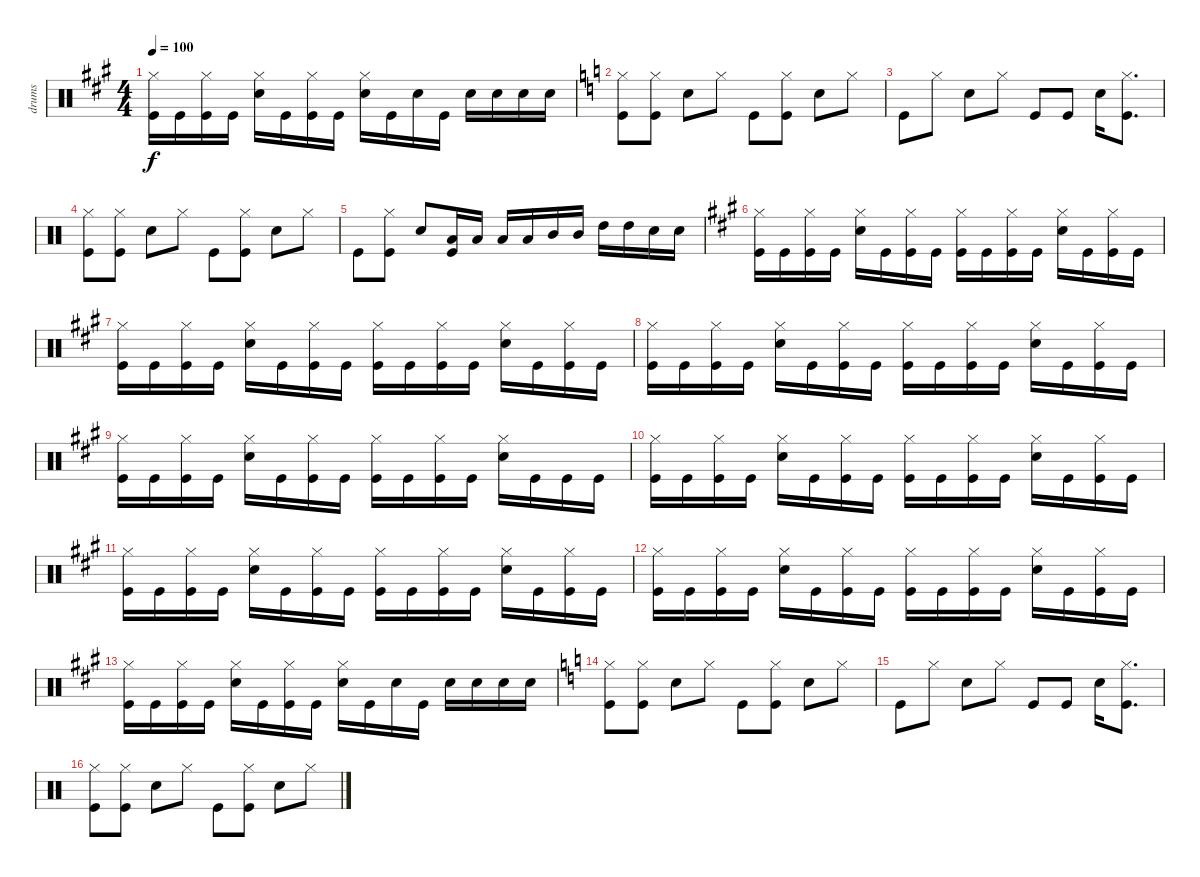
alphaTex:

\track ("drums" "drums") {instrument percussion}
\staff {score}
\articulation defaults
\ts (4 4)
\tempo 100
\clef neutral
\ks f#minor
("Hi-Hat (closed)" "Kick (hit)").16{dy f} "Kick (hit)".16 ("Hi-Hat (closed)" "Kick (hit)").16 "Kick (hit)".16 ("Hi-Hat (closed)" "Snare (hit) 2").16 "Kick (hit)".16 ("Hi-Hat (closed)" "Kick (hit)").16 "Kick (hit)".16 ("Hi-Hat (closed)" "Snare (hit) 2").16 "Kick (hit)".16 "Snare (hit) 2".16 "Kick (hit)".16 "Snare (hit) 2".16 "Snare (hit) 2".16 "Snare (hit) 2".16 "Snare (hit) 2".16 |
\ks aminor
("Hi-Hat (closed)" "Kick (hit)").8 ("Hi-Hat (closed)" "Kick (hit)").8 "Snare (hit) 2".8 "Hi-Hat (closed)".8 "Kick (hit)".8 ("Hi-Hat (closed)" "Kick (hit)").8 "Snare (hit) 2".8 "Hi-Hat (closed)".8 |
"Kick (hit)".8 "Hi-Hat (closed)".8 "Snare (hit) 2".8 "Hi-Hat (closed)".8 "Kick (hit)".8 "Kick (hit)".8 "Snare (hit) 2".16 ("Hi-Hat (closed)" "Kick (hit)").8{d} |
("Hi-Hat (closed)" "Kick (hit)").8 ("Hi-Hat (closed)" "Kick (hit)").8 "Snare (hit) 2".8 "Hi-Hat (closed)".8 "Kick (hit)".8 ("Hi-Hat (closed)" "Kick (hit)").8 "Snare (hit) 2".8 "Hi-Hat (closed)".8 |
"Kick (hit)".8 ("Hi-Hat (closed)" "Kick (hit)").8 "Snare (hit) 2".8 ("Low Tom (hit)" "Kick (hit)").16 "Low Tom (hit)".16 "Low Tom (hit)".16 "Low Tom (hit)".16 "Mid Tom (hit)".16 "Mid Tom (hit)".16 "High Tom (hit)".16 "High Tom (hit)".16 "Snare (hit) 2".16 "Snare (hit) 2".16 |
\ks f#minor
("Hi-Hat (closed)" "Kick (hit)").16 "Kick (hit)".16 ("Hi-Hat (closed)" "Kick (hit)").16 "Kick (hit)".16 ("Hi-Hat (closed)" "Snare (hit) 2").16 "Kick (hit)".16 ("Hi-Hat (closed)" "Kick (hit)").16 "Kick (hit)".16 ("Hi-Hat (closed)" "Kick (hit)").16 "Kick (hit)".16 ("Hi-Hat (closed)" "Kick (hit)").16 "Kick (hit)".16 ("Hi-Hat (closed)" "Snare (hit) 2").16 "Kick (hit)".16 ("Hi-Hat (closed)" "Kick (hit)").16 "Kick (hit)".16 |
("Hi-Hat (closed)" "Kick (hit)").16 "Kick (hit)".16 ("Hi-Hat (closed)" "Kick (hit)").16 "Kick (hit)".16 ("Hi-Hat (closed)" "Snare (hit) 2").16 "Kick (hit)".16 ("Hi-Hat (closed)" "Kick (hit)").16 "Kick (hit)".16 ("Hi-Hat (closed)" "Kick (hit)").16 "Kick (hit)".16 ("Hi-Hat (closed)" "Kick (hit)").16 "Kick (hit)".16 ("Hi-Hat (closed)" "Snare (hit) 2").16 "Kick (hit)".16 ("Hi-Hat (closed)" "Kick (hit)").16 "Kick (hit)".16 |
("Hi-Hat (closed)" "Kick (hit)").16 "Kick (hit)".16 ("Hi-Hat (closed)" "Kick (hit)").16 "Kick (hit)".16 ("Hi-Hat (closed)" "Snare (hit) 2").16 "Kick (hit)".16 ("Hi-Hat (closed)" "Kick (hit)").16 "Kick (hit)".16 ("Hi-Hat (closed)" "Kick (hit)").16 "Kick (hit)".16 ("Hi-Hat (closed)" "Kick (hit)").16 "Kick (hit)".16 ("Hi-Hat (closed)" "Snare (hit) 2").16 "Kick (hit)".16 ("Hi-Hat (closed)" "Kick (hit)").16 "Kick (hit)".16 |
("Hi-Hat (closed)" "Kick (hit)").16 "Kick (hit)".16 ("Hi-Hat (closed)" "Kick (hit)").16 "Kick (hit)".16 ("Hi-Hat (closed)" "Snare (hit) 2").16 "Kick (hit)".16 ("Hi-Hat (closed)" "Kick (hit)").16 "Kick (hit)".16 ("Hi-Hat (closed)" "Kick (hit)").16 "Kick (hit)".16 ("Hi-Hat (closed)" "Kick (hit)").16 "Kick (hit)".16 ("Hi-Hat (closed)" "Snare (hit) 2").16 "Kick (hit)".16 "Kick (hit)".16 "Kick (hit)".16 |
("Hi-Hat (closed)" "Kick (hit)").16 "Kick (hit)".16 ("Hi-Hat (closed)" "Kick (hit)").16 "Kick (hit)".16 ("Hi-Hat (closed)" "Snare (hit) 2").16 "Kick (hit)".16 ("Hi-Hat (closed)" "Kick (hit)").16 "Kick (hit)".16 ("Hi-Hat (closed)" "Kick (hit)").16 "Kick (hit)".16 ("Hi-Hat (closed)" "Kick (hit)").16 "Kick (hit)".16 ("Hi-Hat (closed)" "Snare (hit) 2").16 "Kick (hit)".16 ("Hi-Hat (closed)" "Kick (hit)").16 "Kick (hit)".16 |
("Hi-Hat (closed)" "Kick (hit)").16 "Kick (hit)".16 ("Hi-Hat (closed)" "Kick (hit)").16 "Kick (hit)".16 ("Hi-Hat (closed)" "Snare (hit) 2").16 "Kick (hit)".16 ("Hi-Hat (closed)" "Kick (hit)").16 "Kick (hit)".16 ("Hi-Hat (closed)" "Kick (hit)").16 "Kick (hit)".16 ("Hi-Hat (closed)" "Kick (hit)").16 "Kick (hit)".16 ("Hi-Hat (closed)" "Snare (hit) 2").16 "Kick (hit)".16 ("Hi-Hat (closed)" "Kick (hit)").16 "Kick (hit)".16 |
("Hi-Hat (closed)" "Kick (hit)").16 "Kick (hit)".16 ("Hi-Hat (closed)" "Kick (hit)").16 "Kick (hit)".16 ("Hi-Hat (closed)" "Snare (hit) 2").16 "Kick (hit)".16 ("Hi-Hat (closed)" "Kick (hit)").16 "Kick (hit)".16 ("Hi-Hat (closed)" "Kick (hit)").16 "Kick (hit)".16 ("Hi-Hat (closed)" "Kick (hit)").16 "Kick (hit)".16 ("Hi-Hat (closed)" "Snare (hit) 2").16 "Kick (hit)".16 ("Hi-Hat (closed)" "Kick (hit)").16 "Kick (hit)".16 |
("Hi-Hat (closed)" "Kick (hit)").16 "Kick (hit)".16 ("Hi-Hat (closed)" "Kick (hit)").16 "Kick (hit)".16 ("Hi-Hat (closed)" "Snare (hit) 2").16 "Kick (hit)".16 ("Hi-Hat (closed)" "Kick (hit)").16 "Kick (hit)".16 ("Hi-Hat (closed)" "Snare (hit) 2").16 "Kick (hit)".16 "Snare (hit) 2".16 "Kick (hit)".16 "Snare (hit) 2".16 "Snare (hit) 2".16 "Snare (hit) 2".16 "Snare (hit) 2".16 |
\ks aminor
("Hi-Hat (closed)" "Kick (hit)").8 ("Hi-Hat (closed)" "Kick (hit)").8 "Snare (hit) 2".8 "Hi-Hat (closed)".8 "Kick (hit)".8 ("Hi-Hat (closed)" "Kick (hit)").8 "Snare (hit) 2".8 "Hi-Hat (closed)".8 |
"Kick (hit)".8 "Hi-Hat (closed)".8 "Snare (hit) 2".8 "Hi-Hat (closed)".8 "Kick (hit)".8 "Kick (hit)".8 "Snare (hit) 2".16 ("Hi-Hat (closed)" "Kick (hit)").8{d} |
("Hi-Hat (closed)" "Kick (hit)").8 ("Hi-Hat (closed)" "Kick (hit)").8 "Snare (hit) 2".8 "Hi-Hat (closed)".8 "Kick (hit)".8 ("Hi-Hat (closed)" "Kick (hit)").8 "Snare (hit) 2".8 "Hi-Hat (closed)".8
